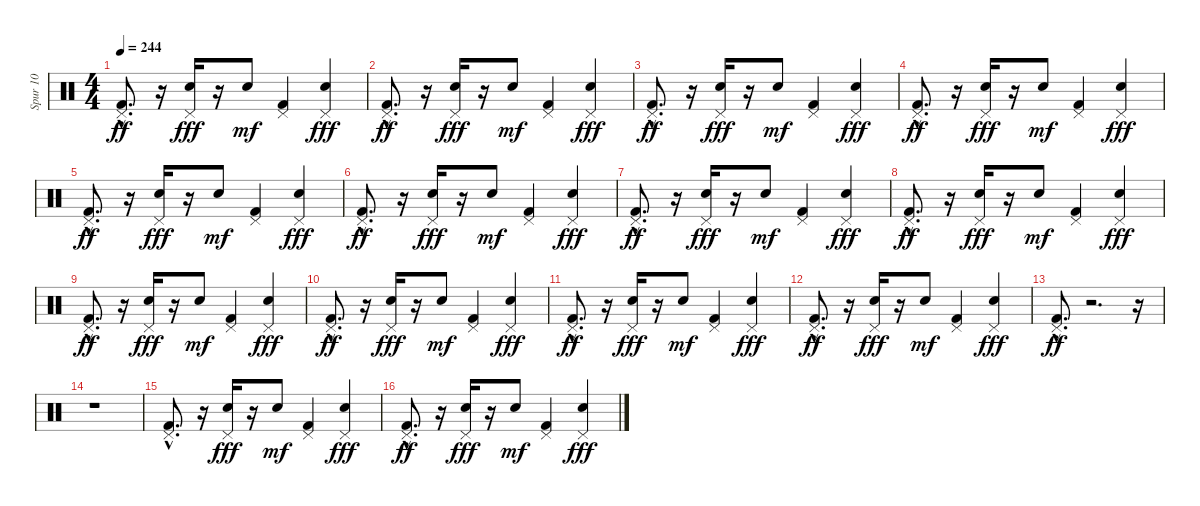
\track ("Spur 10" "Spur 10") {instrument percussion}
\staff {score}
\articulation defaults
\ts (4 4)
\tempo 244
\clef neutral
\ks c
("Pedal Hi-Hat (hit)" "Kick (hit) 2"{hac}).8{d dy ff} r.16 ("Pedal Hi-Hat (hit)" "Electric Snare (hit)").16{dy fff} r.16 "Electric Snare (hit)".8{dy mf} ("Pedal Hi-Hat (hit)" "Kick (hit) 2").4 ("Pedal Hi-Hat (hit)" "Electric Snare (hit)").4{dy fff} |
("Pedal Hi-Hat (hit)" "Kick (hit) 2"{hac}).8{d dy ff} r.16 ("Pedal Hi-Hat (hit)" "Electric Snare (hit)").16{dy fff} r.16 "Electric Snare (hit)".8{dy mf} ("Pedal Hi-Hat (hit)" "Kick (hit) 2").4 ("Pedal Hi-Hat (hit)" "Electric Snare (hit)").4{dy fff} |
("Pedal Hi-Hat (hit)" "Kick (hit) 2"{hac}).8{d dy ff} r.16 ("Pedal Hi-Hat (hit)" "Electric Snare (hit)").16{dy fff} r.16 "Electric Snare (hit)".8{dy mf} ("Pedal Hi-Hat (hit)" "Kick (hit) 2").4 ("Pedal Hi-Hat (hit)" "Electric Snare (hit)").4{dy fff} |
("Pedal Hi-Hat (hit)" "Kick (hit) 2"{hac}).8{d dy ff} r.16 ("Pedal Hi-Hat (hit)" "Electric Snare (hit)").16{dy fff} r.16 "Electric Snare (hit)".8{dy mf} ("Pedal Hi-Hat (hit)" "Kick (hit) 2").4 ("Pedal Hi-Hat (hit)" "Electric Snare (hit)").4{dy fff} |
("Pedal Hi-Hat (hit)" "Kick (hit) 2"{hac}).8{d dy ff} r.16 ("Pedal Hi-Hat (hit)" "Electric Snare (hit)").16{dy fff} r.16 "Electric Snare (hit)".8{dy mf} ("Pedal Hi-Hat (hit)" "Kick (hit) 2").4 ("Pedal Hi-Hat (hit)" "Electric Snare (hit)").4{dy fff} |
("Pedal Hi-Hat (hit)" "Kick (hit) 2"{hac}).8{d dy ff} r.16 ("Pedal Hi-Hat (hit)" "Electric Snare (hit)").16{dy fff} r.16 "Electric Snare (hit)".8{dy mf} ("Pedal Hi-Hat (hit)" "Kick (hit) 2").4 ("Pedal Hi-Hat (hit)" "Electric Snare (hit)").4{dy fff} |
("Pedal Hi-Hat (hit)" "Kick (hit) 2"{hac}).8{d dy ff} r.16 ("Pedal Hi-Hat (hit)" "Electric Snare (hit)").16{dy fff} r.16 "Electric Snare (hit)".8{dy mf} ("Pedal Hi-Hat (hit)" "Kick (hit) 2").4 ("Pedal Hi-Hat (hit)" "Electric Snare (hit)").4{dy fff} |
("Pedal Hi-Hat (hit)" "Kick (hit) 2"{hac}).8{d dy ff} r.16 ("Pedal Hi-Hat (hit)" "Electric Snare (hit)").16{dy fff} r.16 "Electric Snare (hit)".8{dy mf} ("Pedal Hi-Hat (hit)" "Kick (hit) 2").4 ("Pedal Hi-Hat (hit)" "Electric Snare (hit)").4{dy fff} |
("Pedal Hi-Hat (hit)" "Kick (hit) 2"{hac}).8{d dy ff} r.16 ("Pedal Hi-Hat (hit)" "Electric Snare (hit)").16{dy fff} r.16 "Electric Snare (hit)".8{dy mf} ("Pedal Hi-Hat (hit)" "Kick (hit) 2").4 ("Pedal Hi-Hat (hit)" "Electric Snare (hit)").4{dy fff} |
("Pedal Hi-Hat (hit)" "Kick (hit) 2"{hac}).8{d dy ff} r.16 ("Pedal Hi-Hat (hit)" "Electric Snare (hit)").16{dy fff} r.16 "Electric Snare (hit)".8{dy mf} ("Pedal Hi-Hat (hit)" "Kick (hit) 2").4 ("Pedal Hi-Hat (hit)" "Electric Snare (hit)").4{dy fff} |
("Pedal Hi-Hat (hit)" "Kick (hit) 2"{hac}).8{d dy ff} r.16 ("Pedal Hi-Hat (hit)" "Electric Snare (hit)").16{dy fff} r.16 "Electric Snare (hit)".8{dy mf} ("Pedal Hi-Hat (hit)" "Kick (hit) 2").4 ("Pedal Hi-Hat (hit)" "Electric Snare (hit)").4{dy fff} |
("Pedal Hi-Hat (hit)" "Kick (hit) 2"{hac}).8{d dy ff} r.16 ("Pedal Hi-Hat (hit)" "Electric Snare (hit)").16{dy fff} r.16 "Electric Snare (hit)".8{dy mf} ("Pedal Hi-Hat (hit)" "Kick (hit) 2").4 ("Pedal Hi-Hat (hit)" "Electric Snare (hit)").4{dy fff} |
("Pedal Hi-Hat (hit)" "Kick (hit) 2"{hac}).8{d dy ff} r.2{d} r.16 |
r.1 |
("Pedal Hi-Hat (hit)" "Kick (hit) 2"{hac}).8{d} r.16 ("Pedal Hi-Hat (hit)" "Electric Snare (hit)").16{dy fff} r.16 "Electric Snare (hit)".8{dy mf} ("Pedal Hi-Hat (hit)" "Kick (hit) 2").4 ("Pedal Hi-Hat (hit)" "Electric Snare (hit)").4{dy fff} |
("Pedal Hi-Hat (hit)" "Kick (hit) 2"{hac}).8{d dy ff} r.16 ("Pedal Hi-Hat (hit)" "Electric Snare (hit)").16{dy fff} r.16 "Electric Snare (hit)".8{dy mf} ("Pedal Hi-Hat (hit)" "Kick (hit) 2").4 ("Pedal Hi-Hat (hit)" "Electric Snare (hit)").4{dy fff}
